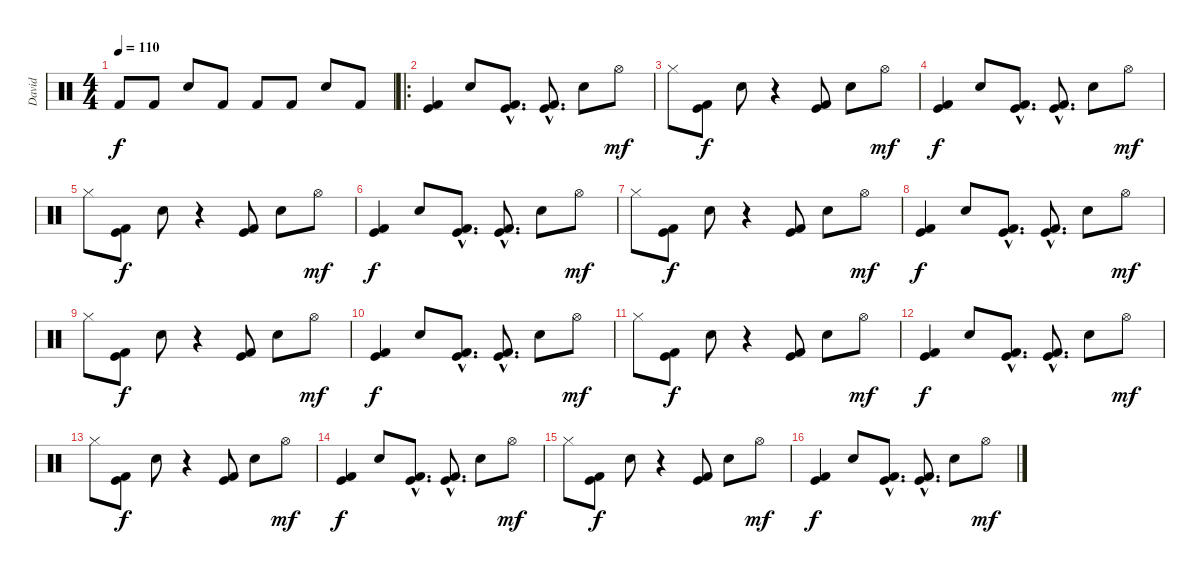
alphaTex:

\track ("David" "David") {instrument percussion}
\staff {score}
\articulation defaults
\ts (4 4)
\tempo 110
\clef neutral
\ks c "Kick (hit) 2".8{dy f} "Kick (hit) 2".8 "Snare (hit) 2".8 "Kick (hit) 2".8 "Kick (hit) 2".8 "Kick (hit) 2".8 "Snare (hit) 2".8 "Kick (hit) 2".8
|
\ro
("Kick (hit)" "Kick (hit) 2").4 "Snare (hit) 2".8 ("Kick (hit)"{hac} "Kick (hit) 2"{hac}).8{d} ("Kick (hit)"{hac} "Kick (hit) 2"{hac}).8{d} "Snare (hit) 2".8 "Hi-Hat (open)".8{dy mf} |
"Hi-Hat (closed)".8 ("Kick (hit)" "Kick (hit) 2").8{dy f} "Snare (hit) 2".8 r.4 ("Kick (hit)" "Kick (hit) 2").8 "Snare (hit) 2".8 "Hi-Hat (open)".8{dy mf} |
("Kick (hit)" "Kick (hit) 2").4{dy f} "Snare (hit) 2".8 ("Kick (hit)"{hac} "Kick (hit) 2"{hac}).8{d} ("Kick (hit)"{hac} "Kick (hit) 2"{hac}).8{d} "Snare (hit) 2".8 "Hi-Hat (open)".8{dy mf} |
"Hi-Hat (closed)".8 ("Kick (hit)" "Kick (hit) 2").8{dy f} "Snare (hit) 2".8 r.4 ("Kick (hit)" "Kick (hit) 2").8 "Snare (hit) 2".8 "Hi-Hat (open)".8{dy mf} |
("Kick (hit)" "Kick (hit) 2").4{dy f} "Snare (hit) 2".8 ("Kick (hit)"{hac} "Kick (hit) 2"{hac}).8{d} ("Kick (hit)"{hac} "Kick (hit) 2"{hac}).8{d} "Snare (hit) 2".8 "Hi-Hat (open)".8{dy mf} |
"Hi-Hat (closed)".8 ("Kick (hit)" "Kick (hit) 2").8{dy f} "Snare (hit) 2".8 r.4 ("Kick (hit)" "Kick (hit) 2").8 "Snare (hit) 2".8 "Hi-Hat (open)".8{dy mf} |
("Kick (hit)" "Kick (hit) 2").4{dy f} "Snare (hit) 2".8 ("Kick (hit)"{hac} "Kick (hit) 2"{hac}).8{d} ("Kick (hit)"{hac} "Kick (hit) 2"{hac}).8{d} "Snare (hit) 2".8 "Hi-Hat (open)".8{dy mf} |
"Hi-Hat (closed)".8 ("Kick (hit)" "Kick (hit) 2").8{dy f} "Snare (hit) 2".8 r.4 ("Kick (hit)" "Kick (hit) 2").8 "Snare (hit) 2".8 "Hi-Hat (open)".8{dy mf} |
("Kick (hit)" "Kick (hit) 2").4{dy f} "Snare (hit) 2".8 ("Kick (hit)"{hac} "Kick (hit) 2"{hac}).8{d} ("Kick (hit)"{hac} "Kick (hit) 2"{hac}).8{d} "Snare (hit) 2".8 "Hi-Hat (open)".8{dy mf} |
"Hi-Hat (closed)".8 ("Kick (hit)" "Kick (hit) 2").8{dy f} "Snare (hit) 2".8 r.4 ("Kick (hit)" "Kick (hit) 2").8 "Snare (hit) 2".8 "Hi-Hat (open)".8{dy mf} |
("Kick (hit)" "Kick (hit) 2").4{dy f} "Snare (hit) 2".8 ("Kick (hit)"{hac} "Kick (hit) 2"{hac}).8{d} ("Kick (hit)"{hac} "Kick (hit) 2"{hac}).8{d} "Snare (hit) 2".8 "Hi-Hat (open)".8{dy mf} |
"Hi-Hat (closed)".8 ("Kick (hit)" "Kick (hit) 2").8{dy f} "Snare (hit) 2".8 r.4 ("Kick (hit)" "Kick (hit) 2").8 "Snare (hit) 2".8 "Hi-Hat (open)".8{dy mf} |
("Kick (hit)" "Kick (hit) 2").4{dy f} "Snare (hit) 2".8 ("Kick (hit)"{hac} "Kick (hit) 2"{hac}).8{d} ("Kick (hit)"{hac} "Kick (hit) 2"{hac}).8{d} "Snare (hit) 2".8 "Hi-Hat (open)".8{dy mf} |
"Hi-Hat (closed)".8 ("Kick (hit)" "Kick (hit) 2").8{dy f} "Snare (hit) 2".8 r.4 ("Kick (hit)" "Kick (hit) 2").8 "Snare (hit) 2".8 "Hi-Hat (open)".8{dy mf} |
("Kick (hit)" "Kick (hit) 2").4{dy f} "Snare (hit) 2".8 ("Kick (hit)"{hac} "Kick (hit) 2"{hac}).8{d} ("Kick (hit)"{hac} "Kick (hit) 2"{hac}).8{d} "Snare (hit) 2".8 "Hi-Hat (open)".8{dy mf}
